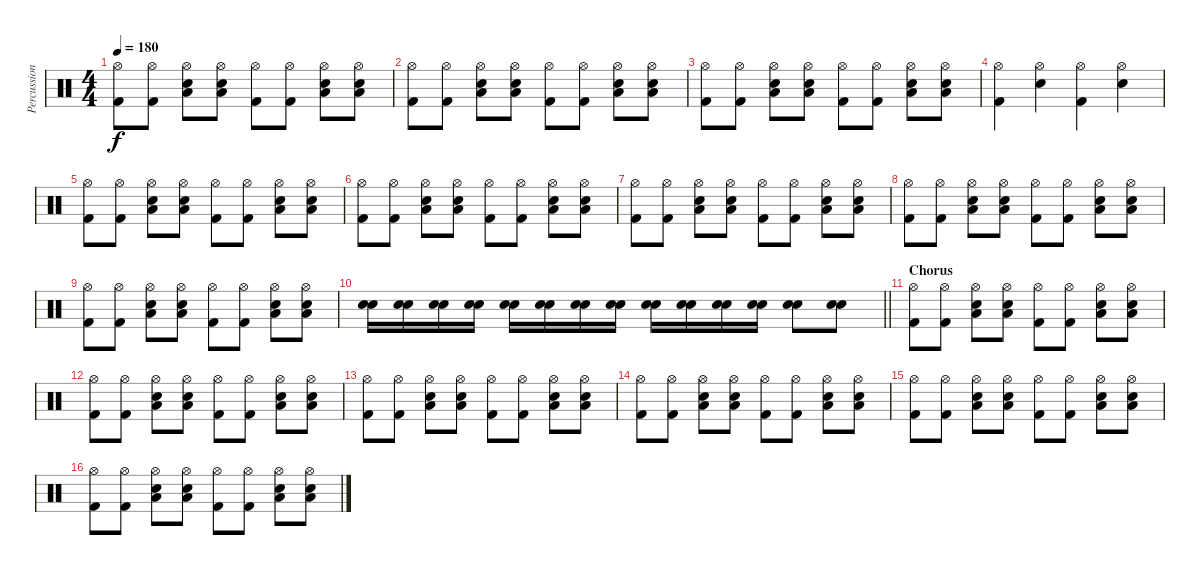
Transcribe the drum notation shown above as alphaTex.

\track ("Percussioni" "Percussion") {instrument percussion}
\staff {score}
\articulation defaults
\ts (4 4)
\tempo 180
\clef neutral
\ks c
("Hi-Hat (open)" "Kick (hit) 2").8{dy f} ("Hi-Hat (open)" "Kick (hit) 2").8 ("Hi-Hat (open)" "Electric Snare (hit)" "Low Floor Tom (hit)").8 ("Hi-Hat (open)" "Electric Snare (hit)" "Low Floor Tom (hit)").8 ("Hi-Hat (open)" "Kick (hit) 2").8 ("Hi-Hat (open)" "Kick (hit) 2").8 ("Hi-Hat (open)" "Electric Snare (hit)" "Low Floor Tom (hit)").8 ("Hi-Hat (open)" "Electric Snare (hit)" "Low Floor Tom (hit)").8 |
("Hi-Hat (open)" "Kick (hit) 2").8 ("Hi-Hat (open)" "Kick (hit) 2").8 ("Hi-Hat (open)" "Electric Snare (hit)" "Low Floor Tom (hit)").8 ("Hi-Hat (open)" "Electric Snare (hit)" "Low Floor Tom (hit)").8 ("Hi-Hat (open)" "Kick (hit) 2").8 ("Hi-Hat (open)" "Kick (hit) 2").8 ("Hi-Hat (open)" "Electric Snare (hit)" "Low Floor Tom (hit)").8 ("Hi-Hat (open)" "Electric Snare (hit)" "Low Floor Tom (hit)").8 |
("Hi-Hat (open)" "Kick (hit) 2").8 ("Hi-Hat (open)" "Kick (hit) 2").8 ("Hi-Hat (open)" "Electric Snare (hit)" "Low Floor Tom (hit)").8 ("Hi-Hat (open)" "Electric Snare (hit)" "Low Floor Tom (hit)").8 ("Hi-Hat (open)" "Kick (hit) 2").8 ("Hi-Hat (open)" "Kick (hit) 2").8 ("Hi-Hat (open)" "Electric Snare (hit)" "Low Floor Tom (hit)").8 ("Hi-Hat (open)" "Electric Snare (hit)" "Low Floor Tom (hit)").8 |
("Hi-Hat (open)" "Kick (hit) 2").4 ("Hi-Hat (open)" "Electric Snare (hit)").4 ("Hi-Hat (open)" "Kick (hit) 2").4 ("Hi-Hat (open)" "Electric Snare (hit)").4 |
("Hi-Hat (open)" "Kick (hit) 2").8 ("Hi-Hat (open)" "Kick (hit) 2").8 ("Hi-Hat (open)" "Electric Snare (hit)" "Low Floor Tom (hit)").8 ("Hi-Hat (open)" "Electric Snare (hit)" "Low Floor Tom (hit)").8 ("Hi-Hat (open)" "Kick (hit) 2").8 ("Hi-Hat (open)" "Kick (hit) 2").8 ("Hi-Hat (open)" "Electric Snare (hit)" "Low Floor Tom (hit)").8 ("Hi-Hat (open)" "Electric Snare (hit)" "Low Floor Tom (hit)").8 |
("Hi-Hat (open)" "Kick (hit) 2").8 ("Hi-Hat (open)" "Kick (hit) 2").8 ("Hi-Hat (open)" "Electric Snare (hit)" "Low Floor Tom (hit)").8 ("Hi-Hat (open)" "Electric Snare (hit)" "Low Floor Tom (hit)").8 ("Hi-Hat (open)" "Kick (hit) 2").8 ("Hi-Hat (open)" "Kick (hit) 2").8 ("Hi-Hat (open)" "Electric Snare (hit)" "Low Floor Tom (hit)").8 ("Hi-Hat (open)" "Electric Snare (hit)" "Low Floor Tom (hit)").8 |
("Hi-Hat (open)" "Kick (hit) 2").8 ("Hi-Hat (open)" "Kick (hit) 2").8 ("Hi-Hat (open)" "Electric Snare (hit)" "Low Floor Tom (hit)").8 ("Hi-Hat (open)" "Electric Snare (hit)" "Low Floor Tom (hit)").8 ("Hi-Hat (open)" "Kick (hit) 2").8 ("Hi-Hat (open)" "Kick (hit) 2").8 ("Hi-Hat (open)" "Electric Snare (hit)" "Low Floor Tom (hit)").8 ("Hi-Hat (open)" "Electric Snare (hit)" "Low Floor Tom (hit)").8 |
("Hi-Hat (open)" "Kick (hit) 2").8 ("Hi-Hat (open)" "Kick (hit) 2").8 ("Hi-Hat (open)" "Electric Snare (hit)" "Low Floor Tom (hit)").8 ("Hi-Hat (open)" "Electric Snare (hit)" "Low Floor Tom (hit)").8 ("Hi-Hat (open)" "Kick (hit) 2").8 ("Hi-Hat (open)" "Kick (hit) 2").8 ("Hi-Hat (open)" "Electric Snare (hit)" "Low Floor Tom (hit)").8 ("Hi-Hat (open)" "Electric Snare (hit)" "Low Floor Tom (hit)").8 |
("Hi-Hat (open)" "Kick (hit) 2").8 ("Hi-Hat (open)" "Kick (hit) 2").8 ("Hi-Hat (open)" "Electric Snare (hit)" "Low Floor Tom (hit)").8 ("Hi-Hat (open)" "Electric Snare (hit)" "Low Floor Tom (hit)").8 ("Hi-Hat (open)" "Kick (hit) 2").8 ("Hi-Hat (open)" "Kick (hit) 2").8 ("Hi-Hat (open)" "Electric Snare (hit)" "Low Floor Tom (hit)").8 ("Hi-Hat (open)" "Electric Snare (hit)" "Low Floor Tom (hit)").8 |
\barLineRight lightlight
("Electric Snare (hit)" "Electric Snare (hit)").16 ("Electric Snare (hit)" "Electric Snare (hit)").16 ("Electric Snare (hit)" "Electric Snare (hit)").16 ("Electric Snare (hit)" "Electric Snare (hit)").16 ("Electric Snare (hit)" "Electric Snare (hit)").16 ("Electric Snare (hit)" "Electric Snare (hit)").16 ("Electric Snare (hit)" "Electric Snare (hit)").16 ("Electric Snare (hit)" "Electric Snare (hit)").16 ("Electric Snare (hit)" "Electric Snare (hit)").16 ("Electric Snare (hit)" "Electric Snare (hit)").16 ("Electric Snare (hit)" "Electric Snare (hit)").16 ("Electric Snare (hit)" "Electric Snare (hit)").16 ("Electric Snare (hit)" "Electric Snare (hit)").8 ("Electric Snare (hit)" "Electric Snare (hit)").8 |
\section ("" "Chorus")
("Hi-Hat (open)" "Kick (hit) 2").8 ("Hi-Hat (open)" "Kick (hit) 2").8 ("Hi-Hat (open)" "Electric Snare (hit)" "Low Floor Tom (hit)").8 ("Hi-Hat (open)" "Electric Snare (hit)" "Low Floor Tom (hit)").8 ("Hi-Hat (open)" "Kick (hit) 2").8 ("Hi-Hat (open)" "Kick (hit) 2").8 ("Hi-Hat (open)" "Electric Snare (hit)" "Low Floor Tom (hit)").8 ("Hi-Hat (open)" "Electric Snare (hit)" "Low Floor Tom (hit)").8 |
("Hi-Hat (open)" "Kick (hit) 2").8 ("Hi-Hat (open)" "Kick (hit) 2").8 ("Hi-Hat (open)" "Electric Snare (hit)" "Low Floor Tom (hit)").8 ("Hi-Hat (open)" "Electric Snare (hit)" "Low Floor Tom (hit)").8 ("Hi-Hat (open)" "Kick (hit) 2").8 ("Hi-Hat (open)" "Kick (hit) 2").8 ("Hi-Hat (open)" "Electric Snare (hit)" "Low Floor Tom (hit)").8 ("Hi-Hat (open)" "Electric Snare (hit)" "Low Floor Tom (hit)").8 |
("Hi-Hat (open)" "Kick (hit) 2").8 ("Hi-Hat (open)" "Kick (hit) 2").8 ("Hi-Hat (open)" "Electric Snare (hit)" "Low Floor Tom (hit)").8 ("Hi-Hat (open)" "Electric Snare (hit)" "Low Floor Tom (hit)").8 ("Hi-Hat (open)" "Kick (hit) 2").8 ("Hi-Hat (open)" "Kick (hit) 2").8 ("Hi-Hat (open)" "Electric Snare (hit)" "Low Floor Tom (hit)").8 ("Hi-Hat (open)" "Electric Snare (hit)" "Low Floor Tom (hit)").8 |
("Hi-Hat (open)" "Kick (hit) 2").8 ("Hi-Hat (open)" "Kick (hit) 2").8 ("Hi-Hat (open)" "Electric Snare (hit)" "Low Floor Tom (hit)").8 ("Hi-Hat (open)" "Electric Snare (hit)" "Low Floor Tom (hit)").8 ("Hi-Hat (open)" "Kick (hit) 2").8 ("Hi-Hat (open)" "Kick (hit) 2").8 ("Hi-Hat (open)" "Electric Snare (hit)" "Low Floor Tom (hit)").8 ("Hi-Hat (open)" "Electric Snare (hit)" "Low Floor Tom (hit)").8 |
("Hi-Hat (open)" "Kick (hit) 2").8 ("Hi-Hat (open)" "Kick (hit) 2").8 ("Hi-Hat (open)" "Electric Snare (hit)" "Low Floor Tom (hit)").8 ("Hi-Hat (open)" "Electric Snare (hit)" "Low Floor Tom (hit)").8 ("Hi-Hat (open)" "Kick (hit) 2").8 ("Hi-Hat (open)" "Kick (hit) 2").8 ("Hi-Hat (open)" "Electric Snare (hit)" "Low Floor Tom (hit)").8 ("Hi-Hat (open)" "Electric Snare (hit)" "Low Floor Tom (hit)").8 |
("Hi-Hat (open)" "Kick (hit) 2").8 ("Hi-Hat (open)" "Kick (hit) 2").8 ("Hi-Hat (open)" "Electric Snare (hit)" "Low Floor Tom (hit)").8 ("Hi-Hat (open)" "Electric Snare (hit)" "Low Floor Tom (hit)").8 ("Hi-Hat (open)" "Kick (hit) 2").8 ("Hi-Hat (open)" "Kick (hit) 2").8 ("Hi-Hat (open)" "Electric Snare (hit)" "Low Floor Tom (hit)").8 ("Hi-Hat (open)" "Electric Snare (hit)" "Low Floor Tom (hit)").8
